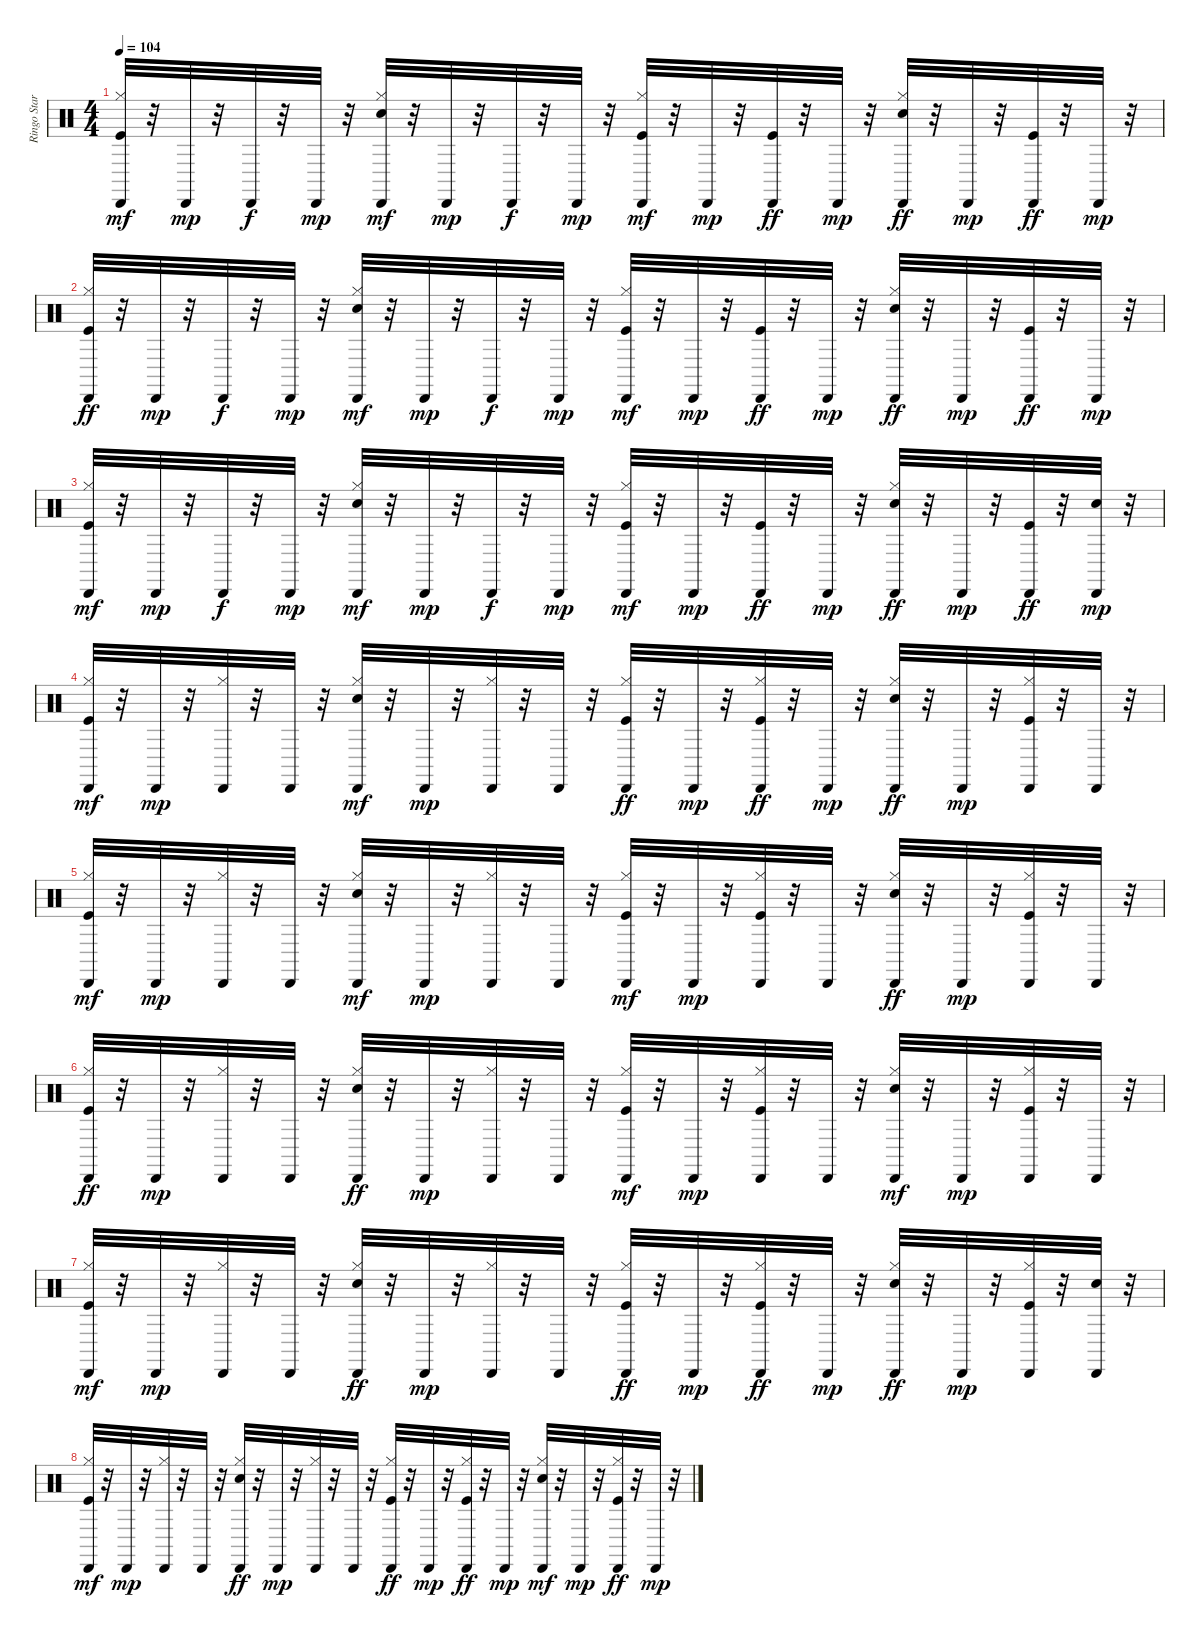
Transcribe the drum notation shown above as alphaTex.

\track ("Ringo Starr - Drums" "Ringo Star") {instrument percussion}
\staff {score}
\articulation defaults
\ts (4 4)
\tempo 104
\clef neutral
\ks c
("Hi-Hat (closed)" "Kick (hit)" "Cabasa (hit)").32{dy mf} r.32 "Cabasa (hit)".32{dy mp} r.32 "Cabasa (hit)".32{dy f} r.32 "Cabasa (hit)".32{dy mp} r.32 ("Hi-Hat (closed)" "Snare (hit) 2" "Cabasa (hit)").32{dy mf} r.32 "Cabasa (hit)".32{dy mp} r.32 "Cabasa (hit)".32{dy f} r.32 "Cabasa (hit)".32{dy mp} r.32 ("Hi-Hat (closed)" "Kick (hit)" "Cabasa (hit)").32{dy mf} r.32 "Cabasa (hit)".32{dy mp} r.32 ("Kick (hit)" "Cabasa (hit)").32{dy ff} r.32 "Cabasa (hit)".32{dy mp} r.32 ("Hi-Hat (closed)" "Cabasa (hit)" "Snare (hit) 2").32{dy ff} r.32 "Cabasa (hit)".32{dy mp} r.32 ("Kick (hit)" "Cabasa (hit)").32{dy ff} r.32 "Cabasa (hit)".32{dy mp} r.32 |
("Hi-Hat (closed)" "Cabasa (hit)" "Kick (hit)").32{dy ff} r.32 "Cabasa (hit)".32{dy mp} r.32 "Cabasa (hit)".32{dy f} r.32 "Cabasa (hit)".32{dy mp} r.32 ("Hi-Hat (closed)" "Snare (hit) 2" "Cabasa (hit)").32{dy mf} r.32 "Cabasa (hit)".32{dy mp} r.32 "Cabasa (hit)".32{dy f} r.32 "Cabasa (hit)".32{dy mp} r.32 ("Hi-Hat (closed)" "Kick (hit)" "Cabasa (hit)").32{dy mf} r.32 "Cabasa (hit)".32{dy mp} r.32 ("Cabasa (hit)" "Kick (hit)").32{dy ff} r.32 "Cabasa (hit)".32{dy mp} r.32 ("Hi-Hat (closed)" "Cabasa (hit)" "Snare (hit) 2").32{dy ff} r.32 "Cabasa (hit)".32{dy mp} r.32 ("Kick (hit)" "Cabasa (hit)").32{dy ff} r.32 "Cabasa (hit)".32{dy mp} r.32 |
("Hi-Hat (closed)" "Kick (hit)" "Cabasa (hit)").32{dy mf} r.32 "Cabasa (hit)".32{dy mp} r.32 "Cabasa (hit)".32{dy f} r.32 "Cabasa (hit)".32{dy mp} r.32 ("Hi-Hat (closed)" "Snare (hit) 2" "Cabasa (hit)").32{dy mf} r.32 "Cabasa (hit)".32{dy mp} r.32 "Cabasa (hit)".32{dy f} r.32 "Cabasa (hit)".32{dy mp} r.32 ("Hi-Hat (closed)" "Kick (hit)" "Cabasa (hit)").32{dy mf} r.32 "Cabasa (hit)".32{dy mp} r.32 ("Cabasa (hit)" "Kick (hit)").32{dy ff} r.32 "Cabasa (hit)".32{dy mp} r.32 ("Hi-Hat (closed)" "Cabasa (hit)" "Snare (hit) 2").32{dy ff} r.32 "Cabasa (hit)".32{dy mp} r.32 ("Cabasa (hit)" "Kick (hit)").32{dy ff} r.32 ("Snare (hit) 2" "Cabasa (hit)").32{dy mp} r.32 |
("Hi-Hat (closed)" "Kick (hit)" "Cabasa (hit)").32{dy mf} r.32 "Cabasa (hit)".32{dy mp} r.32 ("Hi-Hat (closed)" "Cabasa (hit)").32 r.32 "Cabasa (hit)".32 r.32 ("Hi-Hat (closed)" "Snare (hit) 2" "Cabasa (hit)").32{dy mf} r.32 "Cabasa (hit)".32{dy mp} r.32 ("Hi-Hat (closed)" "Cabasa (hit)").32 r.32 "Cabasa (hit)".32 r.32 ("Hi-Hat (closed)" "Cabasa (hit)" "Kick (hit)").32{dy ff} r.32 "Cabasa (hit)".32{dy mp} r.32 ("Hi-Hat (closed)" "Cabasa (hit)" "Kick (hit)").32{dy ff} r.32 "Cabasa (hit)".32{dy mp} r.32 ("Hi-Hat (closed)" "Cabasa (hit)" "Snare (hit) 2").32{dy ff} r.32 "Cabasa (hit)".32{dy mp} r.32 ("Hi-Hat (closed)" "Kick (hit)" "Cabasa (hit)").32 r.32 "Cabasa (hit)".32 r.32 |
("Hi-Hat (closed)" "Kick (hit)" "Cabasa (hit)").32{dy mf} r.32 "Cabasa (hit)".32{dy mp} r.32 ("Hi-Hat (closed)" "Cabasa (hit)").32 r.32 "Cabasa (hit)".32 r.32 ("Hi-Hat (closed)" "Snare (hit) 2" "Cabasa (hit)").32{dy mf} r.32 "Cabasa (hit)".32{dy mp} r.32 ("Hi-Hat (closed)" "Cabasa (hit)").32 r.32 "Cabasa (hit)".32 r.32 ("Hi-Hat (closed)" "Kick (hit)" "Cabasa (hit)").32{dy mf} r.32 "Cabasa (hit)".32{dy mp} r.32 ("Hi-Hat (closed)" "Kick (hit)" "Cabasa (hit)").32 r.32 "Cabasa (hit)".32 r.32 ("Hi-Hat (closed)" "Cabasa (hit)" "Snare (hit) 2").32{dy ff} r.32 "Cabasa (hit)".32{dy mp} r.32 ("Hi-Hat (closed)" "Kick (hit)" "Cabasa (hit)").32 r.32 "Cabasa (hit)".32 r.32 |
("Hi-Hat (closed)" "Cabasa (hit)" "Kick (hit)").32{dy ff} r.32 "Cabasa (hit)".32{dy mp} r.32 ("Hi-Hat (closed)" "Cabasa (hit)").32 r.32 "Cabasa (hit)".32 r.32 ("Hi-Hat (closed)" "Cabasa (hit)" "Snare (hit) 2").32{dy ff} r.32 "Cabasa (hit)".32{dy mp} r.32 ("Hi-Hat (closed)" "Cabasa (hit)").32 r.32 "Cabasa (hit)".32 r.32 ("Hi-Hat (closed)" "Kick (hit)" "Cabasa (hit)").32{dy mf} r.32 "Cabasa (hit)".32{dy mp} r.32 ("Hi-Hat (closed)" "Kick (hit)" "Cabasa (hit)").32 r.32 "Cabasa (hit)".32 r.32 ("Hi-Hat (closed)" "Snare (hit) 2" "Cabasa (hit)").32{dy mf} r.32 "Cabasa (hit)".32{dy mp} r.32 ("Hi-Hat (closed)" "Kick (hit)" "Cabasa (hit)").32 r.32 "Cabasa (hit)".32 r.32 |
("Hi-Hat (closed)" "Kick (hit)" "Cabasa (hit)").32{dy mf} r.32 "Cabasa (hit)".32{dy mp} r.32 ("Hi-Hat (closed)" "Cabasa (hit)").32 r.32 "Cabasa (hit)".32 r.32 ("Hi-Hat (closed)" "Cabasa (hit)" "Snare (hit) 2").32{dy ff} r.32 "Cabasa (hit)".32{dy mp} r.32 ("Hi-Hat (closed)" "Cabasa (hit)").32 r.32 "Cabasa (hit)".32 r.32 ("Hi-Hat (closed)" "Cabasa (hit)" "Kick (hit)").32{dy ff} r.32 "Cabasa (hit)".32{dy mp} r.32 ("Hi-Hat (closed)" "Cabasa (hit)" "Kick (hit)").32{dy ff} r.32 "Cabasa (hit)".32{dy mp} r.32 ("Hi-Hat (closed)" "Cabasa (hit)" "Snare (hit) 2").32{dy ff} r.32 "Cabasa (hit)".32{dy mp} r.32 ("Hi-Hat (closed)" "Kick (hit)" "Cabasa (hit)").32 r.32 ("Cabasa (hit)" "Snare (hit) 2").32 r.32 |
("Hi-Hat (closed)" "Kick (hit)" "Cabasa (hit)").32{dy mf} r.32 "Cabasa (hit)".32{dy mp} r.32 ("Hi-Hat (closed)" "Cabasa (hit)").32 r.32 "Cabasa (hit)".32 r.32 ("Hi-Hat (closed)" "Cabasa (hit)" "Snare (hit) 2").32{dy ff} r.32 "Cabasa (hit)".32{dy mp} r.32 ("Hi-Hat (closed)" "Cabasa (hit)").32 r.32 "Cabasa (hit)".32 r.32 ("Hi-Hat (closed)" "Cabasa (hit)" "Kick (hit)").32{dy ff} r.32 "Cabasa (hit)".32{dy mp} r.32 ("Hi-Hat (closed)" "Cabasa (hit)" "Kick (hit)").32{dy ff} r.32 "Cabasa (hit)".32{dy mp} r.32 ("Hi-Hat (closed)" "Snare (hit) 2" "Cabasa (hit)").32{dy mf} r.32 "Cabasa (hit)".32{dy mp} r.32 ("Hi-Hat (closed)" "Cabasa (hit)" "Kick (hit)").32{dy ff} r.32 "Cabasa (hit)".32{dy mp} r.32
